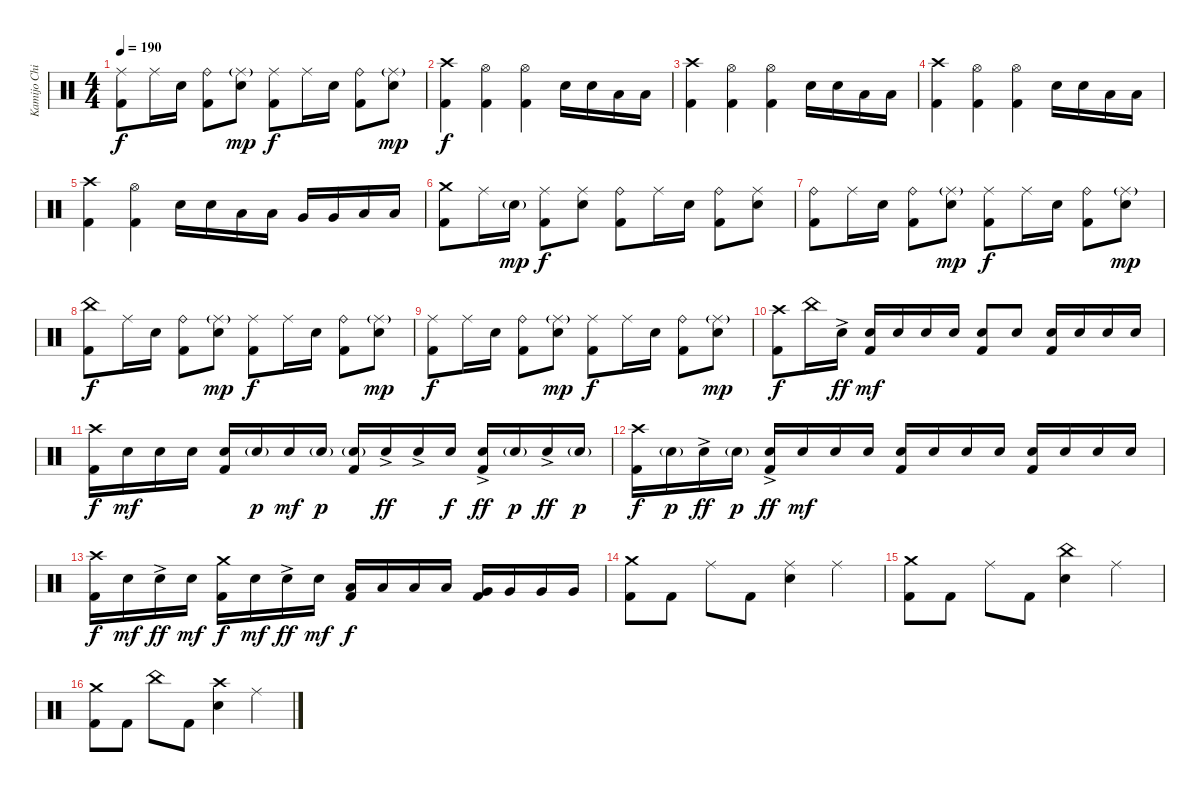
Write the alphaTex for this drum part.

\track ("Kamijo Chihiro" "Kamijo Chi") {instrument percussion}
\staff {score}
\articulation defaults
\ts (4 4)
\tempo 190
\clef neutral
\ks c
("Ride (middle)" "Kick (hit) 2").8{dy f} "Ride (middle)".16 "Snare (hit) 2".16 ("Ride (bell)" "Kick (hit) 2").8 ("Ride (middle)"{g} "Snare (hit) 2").8{dy mp} ("Ride (middle)" "Kick (hit) 2").8{dy f} "Ride (middle)".16 "Snare (hit) 2".16 ("Ride (bell)" "Kick (hit) 2").8 ("Ride (middle)"{g} "Snare (hit) 2").8{dy mp} |
("Crash high (hit)" "Kick (hit) 2").4{dy f} ("Hi-Hat (open)" "Kick (hit) 2").4 ("Hi-Hat (open)" "Kick (hit) 2").4 "Snare (hit) 2".16 "Snare (hit) 2".16 "Low Tom (hit)".16 "Low Tom (hit)".16 |
("Crash high (hit)" "Kick (hit) 2").4 ("Hi-Hat (open)" "Kick (hit) 2").4 ("Hi-Hat (open)" "Kick (hit) 2").4 "Snare (hit) 2".16 "Snare (hit) 2".16 "Low Tom (hit)".16 "Low Tom (hit)".16 |
("Crash high (hit)" "Kick (hit) 2").4 ("Hi-Hat (open)" "Kick (hit) 2").4 ("Hi-Hat (open)" "Kick (hit) 2").4 "Snare (hit) 2".16 "Snare (hit) 2".16 "Low Tom (hit)".16 "Low Tom (hit)".16 |
("Crash high (hit)" "Kick (hit) 2").4 ("Hi-Hat (open)" "Kick (hit) 2").4 "Snare (hit) 2".16 "Snare (hit) 2".16 "Low Tom (hit)".16 "Low Tom (hit)".16 "Very Low Tom (hit)".16 "Very Low Tom (hit)".16 "Low Floor Tom (hit)".16 "Low Floor Tom (hit)".16 |
("Crash medium (hit)" "Kick (hit) 2").8 "Ride (middle)".16 "Snare (hit) 2"{g}.16{dy mp} ("Ride (middle)" "Kick (hit) 2").8{dy f} ("Ride (middle)" "Snare (hit) 2").8 ("Ride (bell)" "Kick (hit) 2").8 "Ride (middle)".16 "Snare (hit) 2".16 ("Ride (bell)" "Kick (hit) 2").8 ("Ride (middle)" "Snare (hit) 2").8 |
("Ride (bell)" "Kick (hit) 2").8 "Ride (middle)".16 "Snare (hit) 2".16 ("Ride (bell)" "Kick (hit) 2").8 ("Ride (middle)"{g} "Snare (hit) 2").8{dy mp} ("Ride (middle)" "Kick (hit) 2").8{dy f} "Ride (middle)".16 "Snare (hit) 2".16 ("Ride (bell)" "Kick (hit) 2").8 ("Ride (middle)"{g} "Snare (hit) 2").8{dy mp} |
("China (hit)" "Kick (hit) 2").8{dy f} "Ride (middle)".16 "Snare (hit) 2".16 ("Ride (bell)" "Kick (hit) 2").8 ("Ride (middle)"{g} "Snare (hit) 2").8{dy mp} ("Ride (middle)" "Kick (hit) 2").8{dy f} "Ride (middle)".16 "Snare (hit) 2".16 ("Ride (bell)" "Kick (hit) 2").8 ("Ride (middle)"{g} "Snare (hit) 2").8{dy mp} |
("Ride (middle)" "Kick (hit) 2").8{dy f} "Ride (middle)".16 "Snare (hit) 2".16 ("Ride (bell)" "Kick (hit) 2").8 ("Ride (middle)"{g} "Snare (hit) 2").8{dy mp} ("Ride (middle)" "Kick (hit) 2").8{dy f} "Ride (middle)".16 "Snare (hit) 2".16 ("Ride (bell)" "Kick (hit) 2").8 ("Ride (middle)"{g} "Snare (hit) 2").8{dy mp} |
("Crash high (hit)" "Kick (hit) 2").8{dy f} "China (hit)".16 "Snare (hit) 2"{ac}.16{dy ff} ("Snare (hit) 2" "Kick (hit) 2").16{dy mf} "Snare (hit) 2".16 "Snare (hit) 2".16 "Snare (hit) 2".16 ("Snare (hit) 2" "Kick (hit) 2").8 "Snare (hit) 2".8 ("Snare (hit) 2" "Kick (hit) 2").16 "Snare (hit) 2".16 "Snare (hit) 2".16 "Snare (hit) 2".16 |
("Crash high (hit)" "Kick (hit) 2").16{dy f} "Snare (hit) 2".16{dy mf} "Snare (hit) 2".16 "Snare (hit) 2".16 ("Snare (hit) 2" "Kick (hit) 2").16 "Snare (hit) 2"{g}.16{dy p} "Snare (hit) 2".16{dy mf} "Snare (hit) 2"{g}.16{dy p} ("Snare (hit) 2"{g} "Kick (hit) 2").16 "Snare (hit) 2"{ac}.16{dy ff} "Snare (hit) 2"{ac}.16 "Snare (hit) 2".16{dy f} ("Snare (hit) 2"{ac} "Kick (hit) 2").16{dy ff} "Snare (hit) 2"{g}.16{dy p} "Snare (hit) 2"{ac}.16{dy ff} "Snare (hit) 2"{g}.16{dy p} |
("Crash high (hit)" "Kick (hit) 2").16{dy f} "Snare (hit) 2"{g}.16{dy p} "Snare (hit) 2"{ac}.16{dy ff} "Snare (hit) 2"{g}.16{dy p} ("Snare (hit) 2"{ac} "Kick (hit) 2").16{dy ff} "Snare (hit) 2".16{dy mf} "Snare (hit) 2".16 "Snare (hit) 2".16 ("Snare (hit) 2" "Kick (hit) 2").16 "Snare (hit) 2".16 "Snare (hit) 2".16 "Snare (hit) 2".16 ("Snare (hit) 2" "Kick (hit) 2").16 "Snare (hit) 2".16 "Snare (hit) 2".16 "Snare (hit) 2".16 |
("Crash high (hit)" "Kick (hit) 2").16{dy f} "Snare (hit) 2".16{dy mf} "Snare (hit) 2"{ac}.16{dy ff} "Snare (hit) 2".16{dy mf} ("Crash medium (hit)" "Kick (hit) 2").16{dy f} "Snare (hit) 2".16{dy mf} "Snare (hit) 2"{ac}.16{dy ff} "Snare (hit) 2".16{dy mf} ("Low Tom (hit)" "Kick (hit) 2").16{dy f} "Low Tom (hit)".16 "Low Tom (hit)".16 "Low Tom (hit)".16 ("Very Low Tom (hit)" "Kick (hit) 2").16 "Very Low Tom (hit)".16 "Very Low Tom (hit)".16 "Very Low Tom (hit)".16 |
("Crash medium (hit)" "Kick (hit) 2").8 "Kick (hit) 2".8 "Ride (middle)".8 "Kick (hit) 2".8 ("Ride (middle)" "Snare (hit) 2").4 "Ride (middle)".4 |
("Crash medium (hit)" "Kick (hit) 2").8 "Kick (hit) 2".8 "Ride (middle)".8 "Kick (hit) 2".8 ("China (hit)" "Snare (hit) 2").4 "Ride (middle)".4 |
("Crash medium (hit)" "Kick (hit) 2").8 "Kick (hit) 2".8 "China (hit)".8 "Kick (hit) 2".8 ("Crash high (hit)" "Snare (hit) 2").4 "Ride (middle)".4
